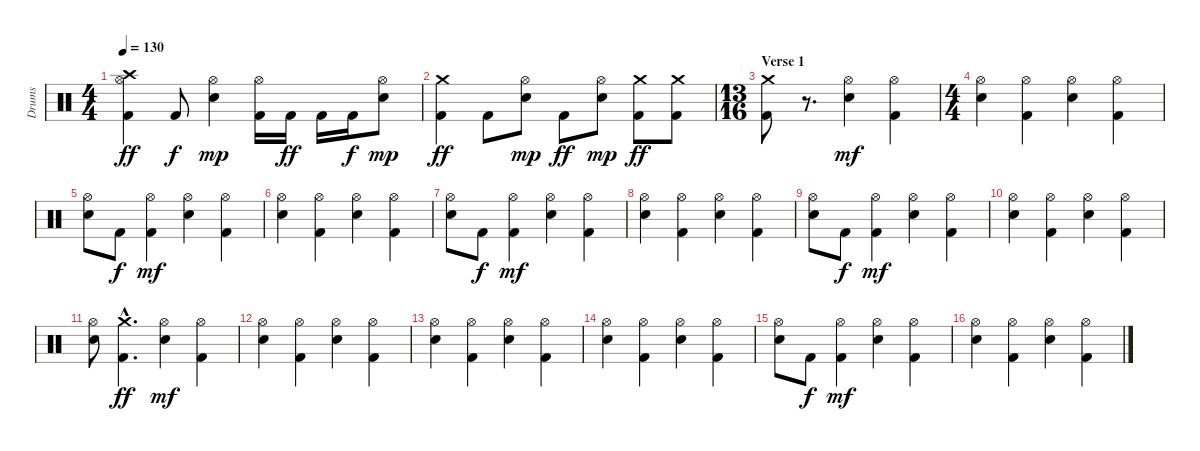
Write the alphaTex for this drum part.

\track ("Drums" "Drums") {instrument percussion}
\staff {score}
\articulation defaults
\ts (4 4)
\tempo 130
\clef neutral
\ks c
("Kick (hit) 2" "Hi-Hat (open)" "Crash high (hit)").4{dy ff} "Kick (hit) 2".8{dy f} ("Hi-Hat (open)" "Snare (hit) 2").4{dy mp} ("Kick (hit) 2" "Hi-Hat (open)").16 "Kick (hit) 2".16{dy ff} "Kick (hit) 2".16 "Kick (hit) 2".16{dy f} ("Hi-Hat (open)" "Snare (hit) 2").8{dy mp} |
("Kick (hit) 2" "Crash medium (hit)").4{dy ff} "Kick (hit) 2".8 ("Hi-Hat (open)" "Snare (hit) 2").8{dy mp} "Kick (hit) 2".8{dy ff} ("Hi-Hat (open)" "Snare (hit) 2").8{dy mp} ("Kick (hit) 2" "Crash medium (hit)").8{dy ff} ("Kick (hit) 2" "Crash medium (hit)").8 |
\ts (13 16)
\section ("" "Verse 1")
("Kick (hit) 2" "Crash medium (hit)").8 r.8{d} ("Hi-Hat (open)" "Snare (hit) 2").4{dy mf} ("Kick (hit) 2" "Hi-Hat (open)").4 |
\ts (4 4)
("Hi-Hat (open)" "Snare (hit) 2").4 ("Kick (hit) 2" "Hi-Hat (open)").4 ("Hi-Hat (open)" "Snare (hit) 2").4 ("Kick (hit) 2" "Hi-Hat (open)").4 |
("Hi-Hat (open)" "Snare (hit) 2").8 "Kick (hit) 2".8{dy f} ("Kick (hit) 2" "Hi-Hat (open)").4{dy mf} ("Hi-Hat (open)" "Snare (hit) 2").4 ("Kick (hit) 2" "Hi-Hat (open)").4 |
("Hi-Hat (open)" "Snare (hit) 2").4 ("Kick (hit) 2" "Hi-Hat (open)").4 ("Hi-Hat (open)" "Snare (hit) 2").4 ("Kick (hit) 2" "Hi-Hat (open)").4 |
("Hi-Hat (open)" "Snare (hit) 2").8 "Kick (hit) 2".8{dy f} ("Kick (hit) 2" "Hi-Hat (open)").4{dy mf} ("Hi-Hat (open)" "Snare (hit) 2").4 ("Kick (hit) 2" "Hi-Hat (open)").4 |
("Hi-Hat (open)" "Snare (hit) 2").4 ("Kick (hit) 2" "Hi-Hat (open)").4 ("Hi-Hat (open)" "Snare (hit) 2").4 ("Kick (hit) 2" "Hi-Hat (open)").4 |
("Hi-Hat (open)" "Snare (hit) 2").8 "Kick (hit) 2".8{dy f} ("Kick (hit) 2" "Hi-Hat (open)").4{dy mf} ("Hi-Hat (open)" "Snare (hit) 2").4 ("Kick (hit) 2" "Hi-Hat (open)").4 |
("Hi-Hat (open)" "Snare (hit) 2").4 ("Kick (hit) 2" "Hi-Hat (open)").4 ("Hi-Hat (open)" "Snare (hit) 2").4 ("Kick (hit) 2" "Hi-Hat (open)").4 |
("Hi-Hat (open)" "Snare (hit) 2").8 ("Kick (hit) 2"{hac} "Crash medium (hit)"{hac}).4{d dy ff} ("Hi-Hat (open)" "Snare (hit) 2").4{dy mf} ("Kick (hit) 2" "Hi-Hat (open)").4 |
("Hi-Hat (open)" "Snare (hit) 2").4 ("Kick (hit) 2" "Hi-Hat (open)").4 ("Hi-Hat (open)" "Snare (hit) 2").4 ("Kick (hit) 2" "Hi-Hat (open)").4 |
("Hi-Hat (open)" "Snare (hit) 2").4 ("Kick (hit) 2" "Hi-Hat (open)").4 ("Hi-Hat (open)" "Snare (hit) 2").4 ("Kick (hit) 2" "Hi-Hat (open)").4 |
("Hi-Hat (open)" "Snare (hit) 2").4 ("Kick (hit) 2" "Hi-Hat (open)").4 ("Hi-Hat (open)" "Snare (hit) 2").4 ("Kick (hit) 2" "Hi-Hat (open)").4 |
("Hi-Hat (open)" "Snare (hit) 2").8 "Kick (hit) 2".8{dy f} ("Kick (hit) 2" "Hi-Hat (open)").4{dy mf} ("Hi-Hat (open)" "Snare (hit) 2").4 ("Kick (hit) 2" "Hi-Hat (open)").4 |
("Hi-Hat (open)" "Snare (hit) 2").4 ("Kick (hit) 2" "Hi-Hat (open)").4 ("Hi-Hat (open)" "Snare (hit) 2").4 ("Kick (hit) 2" "Hi-Hat (open)").4
